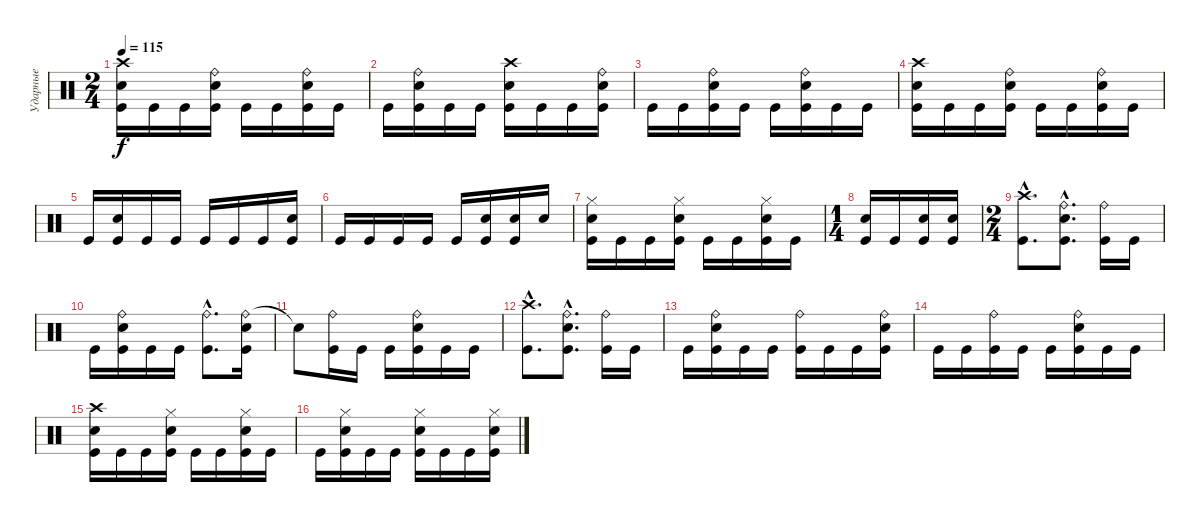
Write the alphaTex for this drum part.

\track ("Ударные" "Ударные") {instrument percussion}
\staff {score}
\articulation defaults
\ts (2 4)
\tempo 115
\clef neutral
\ks c
("Crash high (hit)" "Electric Snare (hit)" "Kick (hit)").16{dy f} "Kick (hit)".16 "Kick (hit)".16 ("Ride (bell)" "Electric Snare (hit)" "Kick (hit)").16 "Kick (hit)".16 "Kick (hit)".16 ("Ride (bell)" "Electric Snare (hit)" "Kick (hit)").16 "Kick (hit)".16 |
"Kick (hit)".16 ("Ride (bell)" "Electric Snare (hit)" "Kick (hit)").16 "Kick (hit)".16 "Kick (hit)".16 ("Crash high (hit)" "Electric Snare (hit)" "Kick (hit)").16 "Kick (hit)".16 "Kick (hit)".16 ("Ride (bell)" "Electric Snare (hit)" "Kick (hit)").16 |
"Kick (hit)".16 "Kick (hit)".16 ("Ride (bell)" "Electric Snare (hit)" "Kick (hit)").16 "Kick (hit)".16 "Kick (hit)".16 ("Ride (bell)" "Electric Snare (hit)" "Kick (hit)").16 "Kick (hit)".16 "Kick (hit)".16 |
("Crash high (hit)" "Electric Snare (hit)" "Kick (hit)").16 "Kick (hit)".16 "Kick (hit)".16 ("Ride (bell)" "Electric Snare (hit)" "Kick (hit)").16 "Kick (hit)".16 "Kick (hit)".16 ("Ride (bell)" "Electric Snare (hit)" "Kick (hit)").16 "Kick (hit)".16 |
"Kick (hit)".16 ("Electric Snare (hit)" "Kick (hit)").16 "Kick (hit)".16 "Kick (hit)".16 "Kick (hit)".16 "Kick (hit)".16 "Kick (hit)".16 ("Electric Snare (hit)" "Kick (hit)").16 |
"Kick (hit)".16 "Kick (hit)".16 "Kick (hit)".16 "Kick (hit)".16 "Kick (hit)".16 ("Electric Snare (hit)" "Kick (hit)").16 ("Electric Snare (hit)" "Kick (hit)").16 "Electric Snare (hit)".16 |
("Hi-Hat (closed)" "Electric Snare (hit)" "Kick (hit)").16 "Kick (hit)".16 "Kick (hit)".16 ("Hi-Hat (closed)" "Electric Snare (hit)" "Kick (hit)").16 "Kick (hit)".16 "Kick (hit)".16 ("Hi-Hat (closed)" "Electric Snare (hit)" "Kick (hit)").16 "Kick (hit)".16 |
\ts (1 4)
("Electric Snare (hit)" "Kick (hit)").16 "Kick (hit)".16 ("Electric Snare (hit)" "Kick (hit)").16 ("Electric Snare (hit)" "Kick (hit)").16 |
\ts (2 4)
("Crash high (hit)"{hac} "Kick (hit)"{hac}).8{d} ("Ride (bell)"{hac} "Electric Snare (hit)"{hac} "Kick (hit)"{hac}).8{d} ("Ride (bell)" "Kick (hit)").16 "Kick (hit)".16 |
"Kick (hit)".16 ("Ride (bell)" "Electric Snare (hit)" "Kick (hit)").16 "Kick (hit)".16 "Kick (hit)".16 ("Ride (bell)"{hac} "Kick (hit)"{hac}).8{d} ("Ride (bell)" "Electric Snare (hit)" "Kick (hit)").16 |
"Snare (hit)"{t}.8 ("Ride (bell)" "Kick (hit)").16 "Kick (hit)".16 "Kick (hit)".16 ("Ride (bell)" "Electric Snare (hit)" "Kick (hit)").16 "Kick (hit)".16 "Kick (hit)".16 |
("Crash high (hit)"{hac} "Kick (hit)"{hac}).8{d} ("Ride (bell)"{hac} "Electric Snare (hit)"{hac} "Kick (hit)"{hac}).8{d} ("Ride (bell)" "Kick (hit)").16 "Kick (hit)".16 |
"Kick (hit)".16 ("Ride (bell)" "Electric Snare (hit)" "Kick (hit)").16 "Kick (hit)".16 "Kick (hit)".16 ("Ride (bell)" "Kick (hit)").16 "Kick (hit)".16 "Kick (hit)".16 ("Ride (bell)" "Electric Snare (hit)" "Kick (hit)").16 |
"Kick (hit)".16 "Kick (hit)".16 ("Ride (bell)" "Kick (hit)").16 "Kick (hit)".16 "Kick (hit)".16 ("Ride (bell)" "Electric Snare (hit)" "Kick (hit)").16 "Kick (hit)".16 "Kick (hit)".16 |
("Crash high (hit)" "Electric Snare (hit)" "Kick (hit)").16 "Kick (hit)".16 "Kick (hit)".16 ("Hi-Hat (closed)" "Electric Snare (hit)" "Kick (hit)").16 "Kick (hit)".16 "Kick (hit)".16 ("Hi-Hat (closed)" "Electric Snare (hit)" "Kick (hit)").16 "Kick (hit)".16 |
"Kick (hit)".16 ("Hi-Hat (closed)" "Electric Snare (hit)" "Kick (hit)").16 "Kick (hit)".16 "Kick (hit)".16 ("Hi-Hat (closed)" "Electric Snare (hit)" "Kick (hit)").16 "Kick (hit)".16 "Kick (hit)".16 ("Hi-Hat (closed)" "Electric Snare (hit)" "Kick (hit)").16
